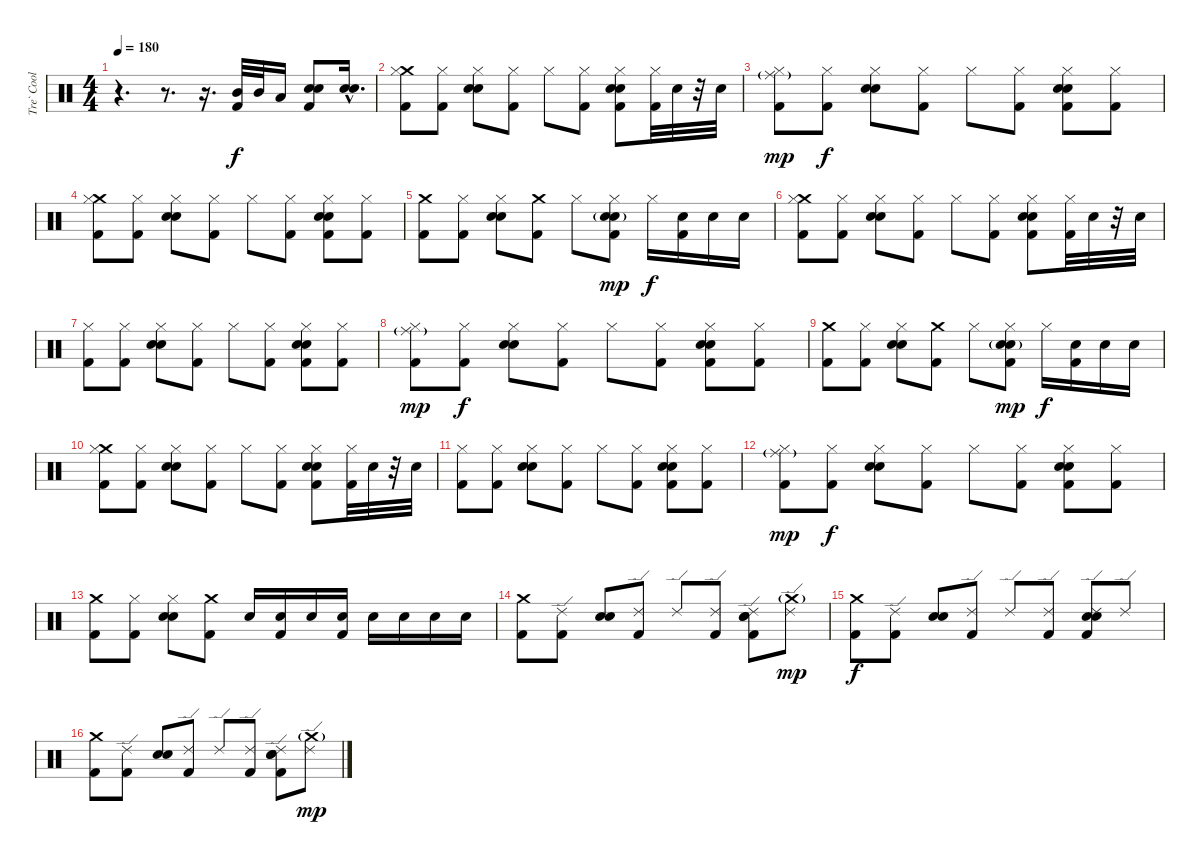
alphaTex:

\track ("Tre` Cool (Drums)" "Tre` Cool ") {instrument percussion}
\staff {score}
\articulation defaults
\ts (4 4)
\tempo 180
\clef neutral
\ks c
r.4{d dy f} r.8{d} r.16{d} ("Mid Tom (hit)" "Kick (hit) 2").32 "Mid Tom (hit)".32 "Low Tom (hit)".16 ("Snare (hit) 2" "Electric Snare (hit)" "Kick (hit) 2").8 ("Snare (hit) 2"{hac} "Snare (hit) 2"{hac}).16{d} |
("Crash medium (hit)" "Hi-Hat (closed)" "Kick (hit) 2").8 ("Hi-Hat (closed)" "Kick (hit) 2").8 ("Hi-Hat (closed)" "Snare (hit) 2" "Electric Snare (hit)").8 ("Hi-Hat (closed)" "Kick (hit) 2").8 "Hi-Hat (closed)".8 ("Hi-Hat (closed)" "Kick (hit) 2").8 ("Hi-Hat (closed)" "Snare (hit) 2" "Electric Snare (hit)" "Kick (hit) 2").8 ("Hi-Hat (closed)" "Kick (hit) 2").32 "Snare (hit) 2".32 r.32 "Snare (hit) 2".32 |
("Ride (middle)"{g} "Hi-Hat (closed)" "Kick (hit) 2").8{dy mp} ("Hi-Hat (closed)" "Kick (hit) 2").8{dy f} ("Hi-Hat (closed)" "Snare (hit) 2" "Electric Snare (hit)").8 ("Hi-Hat (closed)" "Kick (hit) 2").8 "Hi-Hat (closed)".8 ("Hi-Hat (closed)" "Kick (hit) 2").8 ("Hi-Hat (closed)" "Snare (hit) 2" "Electric Snare (hit)" "Kick (hit) 2").8 ("Hi-Hat (closed)" "Kick (hit) 2").8 |
("Crash medium (hit)" "Hi-Hat (closed)" "Kick (hit) 2").8 ("Hi-Hat (closed)" "Kick (hit) 2").8 ("Hi-Hat (closed)" "Snare (hit) 2" "Electric Snare (hit)").8 ("Hi-Hat (closed)" "Kick (hit) 2").8 "Hi-Hat (closed)".8 ("Hi-Hat (closed)" "Kick (hit) 2").8 ("Hi-Hat (closed)" "Snare (hit) 2" "Electric Snare (hit)" "Kick (hit) 2").8 ("Hi-Hat (closed)" "Kick (hit) 2").8 |
("Crash medium (hit)" "Kick (hit) 2").8 ("Hi-Hat (closed)" "Kick (hit) 2").8 ("Hi-Hat (closed)" "Snare (hit) 2" "Electric Snare (hit)").8 ("Crash medium (hit)" "Kick (hit) 2").8 "Hi-Hat (closed)".8 ("Hi-Hat (closed)" "Snare (hit) 2"{g} "Electric Snare (hit)"{g} "Kick (hit) 2").8{dy mp} "Hi-Hat (closed)".16{dy f} ("Snare (hit) 2" "Kick (hit) 2").16 "Snare (hit) 2".16 "Snare (hit) 2".16 |
("Crash medium (hit)" "Hi-Hat (closed)" "Kick (hit) 2").8 ("Hi-Hat (closed)" "Kick (hit) 2").8 ("Hi-Hat (closed)" "Snare (hit) 2" "Electric Snare (hit)").8 ("Hi-Hat (closed)" "Kick (hit) 2").8 "Hi-Hat (closed)".8 ("Hi-Hat (closed)" "Kick (hit) 2").8 ("Hi-Hat (closed)" "Snare (hit) 2" "Electric Snare (hit)" "Kick (hit) 2").8 ("Hi-Hat (closed)" "Kick (hit) 2").32 "Snare (hit) 2".32 r.32 "Snare (hit) 2".32 |
("Hi-Hat (closed)" "Kick (hit) 2").8 ("Hi-Hat (closed)" "Kick (hit) 2").8 ("Hi-Hat (closed)" "Snare (hit) 2" "Electric Snare (hit)").8 ("Hi-Hat (closed)" "Kick (hit) 2").8 "Hi-Hat (closed)".8 ("Hi-Hat (closed)" "Kick (hit) 2").8 ("Hi-Hat (closed)" "Snare (hit) 2" "Electric Snare (hit)" "Kick (hit) 2").8 ("Hi-Hat (closed)" "Kick (hit) 2").8 |
("Ride (middle)"{g} "Hi-Hat (closed)" "Kick (hit) 2").8{dy mp} ("Hi-Hat (closed)" "Kick (hit) 2").8{dy f} ("Hi-Hat (closed)" "Snare (hit) 2" "Electric Snare (hit)").8 ("Hi-Hat (closed)" "Kick (hit) 2").8 "Hi-Hat (closed)".8 ("Hi-Hat (closed)" "Kick (hit) 2").8 ("Hi-Hat (closed)" "Snare (hit) 2" "Electric Snare (hit)" "Kick (hit) 2").8 ("Hi-Hat (closed)" "Kick (hit) 2").8 |
("Crash medium (hit)" "Kick (hit) 2").8 ("Hi-Hat (closed)" "Kick (hit) 2").8 ("Hi-Hat (closed)" "Snare (hit) 2" "Electric Snare (hit)").8 ("Crash medium (hit)" "Kick (hit) 2").8 "Hi-Hat (closed)".8 ("Hi-Hat (closed)" "Snare (hit) 2"{g} "Electric Snare (hit)"{g} "Kick (hit) 2").8{dy mp} "Hi-Hat (closed)".16{dy f} ("Snare (hit) 2" "Kick (hit) 2").16 "Snare (hit) 2".16 "Snare (hit) 2".16 |
("Crash medium (hit)" "Hi-Hat (closed)" "Kick (hit) 2").8 ("Hi-Hat (closed)" "Kick (hit) 2").8 ("Hi-Hat (closed)" "Snare (hit) 2" "Electric Snare (hit)").8 ("Hi-Hat (closed)" "Kick (hit) 2").8 "Hi-Hat (closed)".8 ("Hi-Hat (closed)" "Kick (hit) 2").8 ("Hi-Hat (closed)" "Snare (hit) 2" "Electric Snare (hit)" "Kick (hit) 2").8 ("Hi-Hat (closed)" "Kick (hit) 2").32 "Snare (hit) 2".32 r.32 "Snare (hit) 2".32 |
("Hi-Hat (closed)" "Kick (hit) 2").8 ("Hi-Hat (closed)" "Kick (hit) 2").8 ("Hi-Hat (closed)" "Snare (hit) 2" "Electric Snare (hit)").8 ("Hi-Hat (closed)" "Kick (hit) 2").8 "Hi-Hat (closed)".8 ("Hi-Hat (closed)" "Kick (hit) 2").8 ("Hi-Hat (closed)" "Snare (hit) 2" "Electric Snare (hit)" "Kick (hit) 2").8 ("Hi-Hat (closed)" "Kick (hit) 2").8 |
("Ride (middle)"{g} "Hi-Hat (closed)" "Kick (hit) 2").8{dy mp} ("Hi-Hat (closed)" "Kick (hit) 2").8{dy f} ("Hi-Hat (closed)" "Snare (hit) 2" "Electric Snare (hit)").8 ("Hi-Hat (closed)" "Kick (hit) 2").8 "Hi-Hat (closed)".8 ("Hi-Hat (closed)" "Kick (hit) 2").8 ("Hi-Hat (closed)" "Snare (hit) 2" "Electric Snare (hit)" "Kick (hit) 2").8 ("Hi-Hat (closed)" "Kick (hit) 2").8 |
("Crash medium (hit)" "Kick (hit) 2").8 ("Hi-Hat (closed)" "Kick (hit) 2").8 ("Hi-Hat (closed)" "Snare (hit) 2" "Electric Snare (hit)").8 ("Crash medium (hit)" "Kick (hit) 2").8 "Snare (hit) 2".16 ("Snare (hit) 2" "Kick (hit) 2").16 "Snare (hit) 2".16 ("Snare (hit) 2" "Kick (hit) 2").16 "Snare (hit) 2".16 "Snare (hit) 2".16 "Snare (hit) 2".16 "Snare (hit) 2".16 |
("Crash medium (hit)" "Kick (hit) 2").8 ("Ride (edge) 2" "Kick (hit) 2").8 ("Snare (hit) 2" "Electric Snare (hit)").8 ("Ride (edge) 2" "Kick (hit) 2").8 "Ride (edge) 2".8 ("Ride (edge) 2" "Kick (hit) 2").8 ("Ride (edge) 2" "Snare (hit) 2" "Electric Snare (hit)" "Kick (hit) 2").8 ("Crash medium (hit)"{g} "Ride (edge) 2").8{dy mp} |
("Crash medium (hit)" "Kick (hit) 2").8{dy f} ("Ride (edge) 2" "Kick (hit) 2").8 ("Snare (hit) 2" "Electric Snare (hit)").8 ("Ride (edge) 2" "Kick (hit) 2").8 "Ride (edge) 2".8 ("Ride (edge) 2" "Kick (hit) 2").8 ("Ride (edge) 2" "Snare (hit) 2" "Electric Snare (hit)" "Kick (hit) 2").8 "Ride (edge) 2".8 |
("Crash medium (hit)" "Kick (hit) 2").8 ("Ride (edge) 2" "Kick (hit) 2").8 ("Snare (hit) 2" "Electric Snare (hit)").8 ("Ride (edge) 2" "Kick (hit) 2").8 "Ride (edge) 2".8 ("Ride (edge) 2" "Kick (hit) 2").8 ("Ride (edge) 2" "Snare (hit) 2" "Electric Snare (hit)" "Kick (hit) 2").8 ("Crash medium (hit)"{g} "Ride (edge) 2").8{dy mp}
